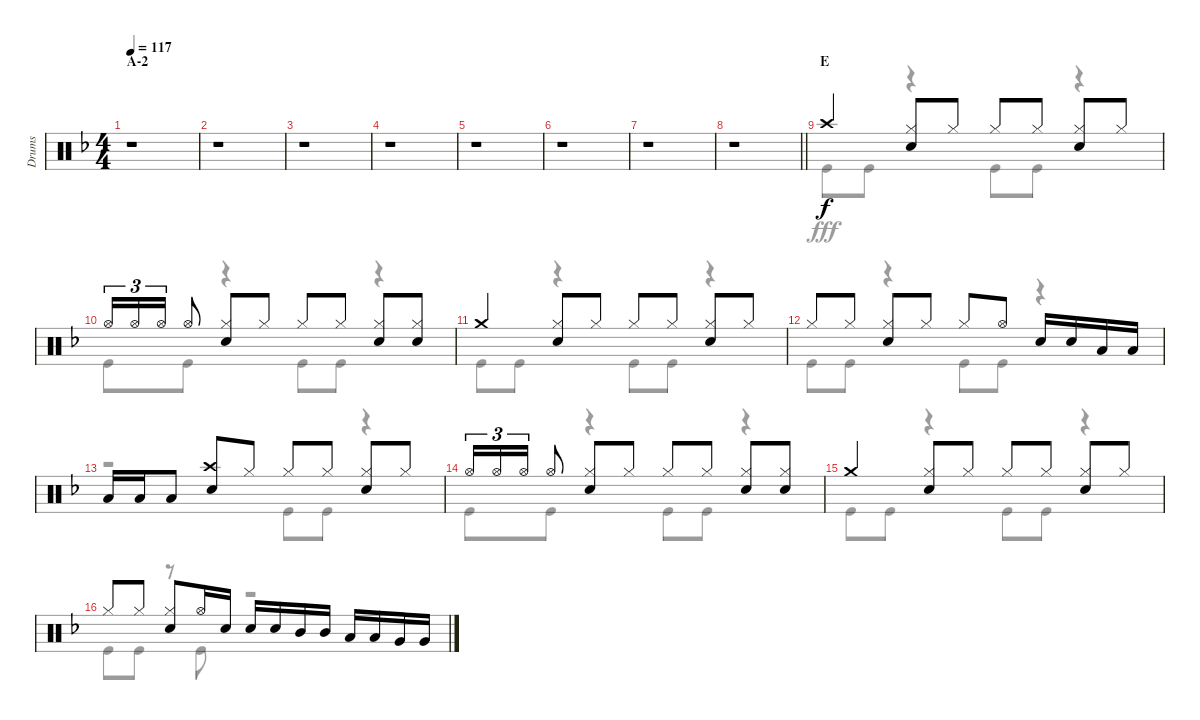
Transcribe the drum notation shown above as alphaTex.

\track ("Drums" "Drums") {instrument percussion}
\staff {score}
\articulation defaults
\voice
\ts (4 4)
\section ("" "A-2")
\tempo 117
\clef neutral
\ks f
r.1{dy f} |
r.1 |
r.1 |
r.1 |
r.1 |
r.1 |
r.1 |
\barLineRight lightlight
r.1 |
\section ("" "E")
"Crash high (hit)".4 ("Hi-Hat (closed)" "Snare (hit) 2").8 "Hi-Hat (closed)".8 "Hi-Hat (closed)".8 "Hi-Hat (closed)".8 ("Hi-Hat (closed)" "Snare (hit) 2").8 "Hi-Hat (closed)".8 |
"Hi-Hat (open)".16{tu (3 2)} "Hi-Hat (open)".16{tu (3 2)} "Hi-Hat (open)".16{tu (3 2)} "Hi-Hat (open)".8 ("Hi-Hat (closed)" "Snare (hit) 2").8 "Hi-Hat (closed)".8 "Hi-Hat (closed)".8 "Hi-Hat (closed)".8 ("Hi-Hat (closed)" "Snare (hit) 2").8 ("Hi-Hat (closed)" "Snare (hit) 2").8 |
"Crash medium (hit)".4 ("Hi-Hat (closed)" "Snare (hit) 2").8 "Hi-Hat (closed)".8 "Hi-Hat (closed)".8 "Hi-Hat (closed)".8 ("Hi-Hat (closed)" "Snare (hit) 2").8 "Hi-Hat (closed)".8 |
"Hi-Hat (closed)".8 "Hi-Hat (closed)".8 ("Hi-Hat (closed)" "Snare (hit) 2").8 "Hi-Hat (closed)".8 "Hi-Hat (closed)".8 "Hi-Hat (open)".8 "Snare (hit) 2".16 "Snare (hit) 2".16 "Low Tom (hit)".16 "Low Tom (hit)".16 |
"Low Tom (hit)".16 "Low Tom (hit)".16 "Low Tom (hit)".8 ("Crash high (hit)" "Snare (hit) 2").8 "Hi-Hat (closed)".8 "Hi-Hat (closed)".8 "Hi-Hat (closed)".8 ("Hi-Hat (closed)" "Snare (hit) 2").8 "Hi-Hat (closed)".8 |
"Hi-Hat (open)".16{tu (3 2)} "Hi-Hat (open)".16{tu (3 2)} "Hi-Hat (open)".16{tu (3 2)} "Hi-Hat (open)".8 ("Hi-Hat (closed)" "Snare (hit) 2").8 "Hi-Hat (closed)".8 "Hi-Hat (closed)".8 "Hi-Hat (closed)".8 ("Hi-Hat (closed)" "Snare (hit) 2").8 ("Hi-Hat (closed)" "Snare (hit) 2").8 |
"Crash medium (hit)".4 ("Hi-Hat (closed)" "Snare (hit) 2").8 "Hi-Hat (closed)".8 "Hi-Hat (closed)".8 "Hi-Hat (closed)".8 ("Hi-Hat (closed)" "Snare (hit) 2").8 "Hi-Hat (closed)".8 |
"Hi-Hat (closed)".8 "Hi-Hat (closed)".8 ("Hi-Hat (closed)" "Snare (hit) 2").8 "Hi-Hat (open)".16 "Snare (hit) 2".16 "Snare (hit) 2".16 "Snare (hit) 2".16 "Mid Tom (hit)".16 "Mid Tom (hit)".16 "Low Tom (hit)".16 "Low Tom (hit)".16 "Very Low Tom (hit)".16 "Very Low Tom (hit)".16
\voice
\clef neutral
\ottava regular
\simile none
\ks f
r.1{dy fff} |
r.1 |
r.1 |
r.1 |
r.1 |
r.1 |
r.1 |
\barLineRight lightlight
r.1 |
"Kick (hit)".8 "Kick (hit)".8 r.4 "Kick (hit)".8 "Kick (hit)".8 r.4 |
"Kick (hit)".8 "Kick (hit)".8 r.4 "Kick (hit)".8 "Kick (hit)".8 r.4 |
"Kick (hit)".8 "Kick (hit)".8 r.4 "Kick (hit)".8 "Kick (hit)".8 r.4 |
"Kick (hit)".8 "Kick (hit)".8 r.4 "Kick (hit)".8 "Kick (hit)".8 r.4 |
r.2 "Kick (hit)".8 "Kick (hit)".8 r.4 |
"Kick (hit)".8 "Kick (hit)".8 r.4 "Kick (hit)".8 "Kick (hit)".8 r.4 |
"Kick (hit)".8 "Kick (hit)".8 r.4 "Kick (hit)".8 "Kick (hit)".8 r.4 |
"Kick (hit)".8 "Kick (hit)".8 r.8 "Kick (hit)".8 r.2
